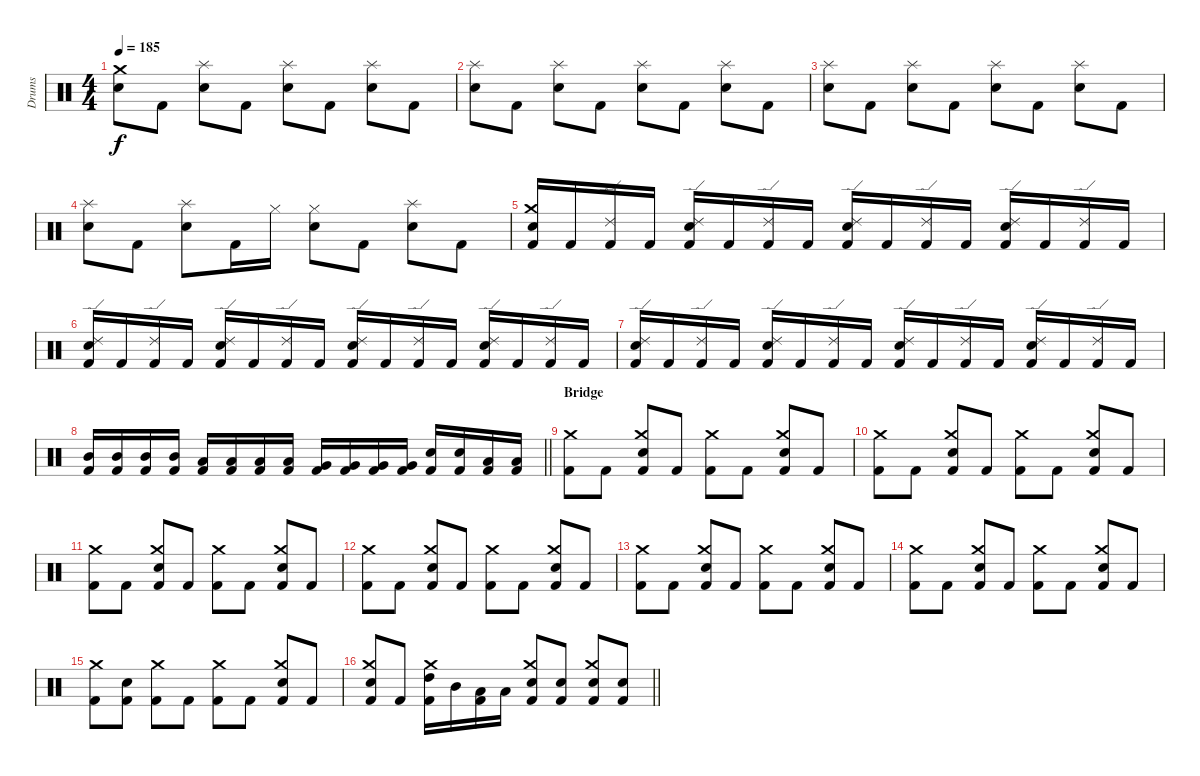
\track ("Drums" "Drums") {instrument percussion}
\staff {score}
\articulation defaults
\ts (4 4)
\section ("" "")
\tempo 185
\clef neutral
\ks c
("Snare (hit) 2" "Crash medium (hit)").8{dy f} "Kick (hit) 2".8 ("Snare (hit) 2" "Splash (hit)").8 "Kick (hit) 2".8 ("Snare (hit) 2" "Splash (hit)").8 "Kick (hit) 2".8 ("Snare (hit) 2" "Splash (hit)").8 "Kick (hit) 2".8 |
("Snare (hit) 2" "Splash (hit)").8 "Kick (hit) 2".8 ("Snare (hit) 2" "Splash (hit)").8 "Kick (hit) 2".8 ("Snare (hit) 2" "Splash (hit)").8 "Kick (hit) 2".8 ("Snare (hit) 2" "Splash (hit)").8 "Kick (hit) 2".8 |
("Snare (hit) 2" "Splash (hit)").8 "Kick (hit) 2".8 ("Snare (hit) 2" "Splash (hit)").8 "Kick (hit) 2".8 ("Snare (hit) 2" "Splash (hit)").8 "Kick (hit) 2".8 ("Snare (hit) 2" "Splash (hit)").8 "Kick (hit) 2".8 |
("Snare (hit) 2" "Splash (hit)").8 "Kick (hit) 2".8 ("Snare (hit) 2" "Splash (hit)").8 "Kick (hit) 2".16 "Hi-Hat (closed)".16 ("Snare (hit) 2" "Hi-Hat (closed)").8 "Kick (hit) 2".8 ("Snare (hit) 2" "Splash (hit)").8 "Kick (hit) 2".8 |
("Kick (hit) 2" "Snare (hit) 2" "Crash medium (hit)").16 "Kick (hit) 2".16 ("Kick (hit) 2" "Ride (edge) 2").16 "Kick (hit) 2".16 ("Kick (hit) 2" "Snare (hit) 2" "Ride (edge) 2").16 "Kick (hit) 2".16 ("Kick (hit) 2" "Ride (edge) 2").16 "Kick (hit) 2".16 ("Kick (hit) 2" "Snare (hit) 2" "Ride (edge) 2").16 "Kick (hit) 2".16 ("Kick (hit) 2" "Ride (edge) 2").16 "Kick (hit) 2".16 ("Kick (hit) 2" "Snare (hit) 2" "Ride (edge) 2").16 "Kick (hit) 2".16 ("Kick (hit) 2" "Ride (edge) 2").16 "Kick (hit) 2".16 |
("Kick (hit) 2" "Snare (hit) 2" "Ride (edge) 2").16 "Kick (hit) 2".16 ("Kick (hit) 2" "Ride (edge) 2").16 "Kick (hit) 2".16 ("Kick (hit) 2" "Snare (hit) 2" "Ride (edge) 2").16 "Kick (hit) 2".16 ("Kick (hit) 2" "Ride (edge) 2").16 "Kick (hit) 2".16 ("Kick (hit) 2" "Snare (hit) 2" "Ride (edge) 2").16 "Kick (hit) 2".16 ("Kick (hit) 2" "Ride (edge) 2").16 "Kick (hit) 2".16 ("Kick (hit) 2" "Snare (hit) 2" "Ride (edge) 2").16 "Kick (hit) 2".16 ("Kick (hit) 2" "Ride (edge) 2").16 "Kick (hit) 2".16 |
("Kick (hit) 2" "Snare (hit) 2" "Ride (edge) 2").16 "Kick (hit) 2".16 ("Kick (hit) 2" "Ride (edge) 2").16 "Kick (hit) 2".16 ("Kick (hit) 2" "Snare (hit) 2" "Ride (edge) 2").16 "Kick (hit) 2".16 ("Kick (hit) 2" "Ride (edge) 2").16 "Kick (hit) 2".16 ("Kick (hit) 2" "Snare (hit) 2" "Ride (edge) 2").16 "Kick (hit) 2".16 ("Kick (hit) 2" "Ride (edge) 2").16 "Kick (hit) 2".16 ("Kick (hit) 2" "Snare (hit) 2" "Ride (edge) 2").16 "Kick (hit) 2".16 ("Kick (hit) 2" "Ride (edge) 2").16 "Kick (hit) 2".16 |
\barLineRight lightlight
("Kick (hit) 2" "Mid Tom (hit)").16 ("Kick (hit) 2" "Mid Tom (hit)").16 ("Kick (hit) 2" "Mid Tom (hit)").16 ("Kick (hit) 2" "Mid Tom (hit)").16 ("Kick (hit) 2" "Low Tom (hit)").16 ("Kick (hit) 2" "Low Tom (hit)").16 ("Kick (hit) 2" "Low Tom (hit)").16 ("Kick (hit) 2" "Low Tom (hit)").16 ("Kick (hit) 2" "Very Low Tom (hit)").16 ("Kick (hit) 2" "Very Low Tom (hit)").16 ("Kick (hit) 2" "Very Low Tom (hit)").16 ("Kick (hit) 2" "Very Low Tom (hit)").16 ("Kick (hit) 2" "Snare (hit) 2").16 ("Kick (hit) 2" "Snare (hit) 2").16 ("Kick (hit) 2" "Low Tom (hit)").16 ("Kick (hit) 2" "Low Tom (hit)").16 |
\section ("" "Bridge")
("Kick (hit) 2" "Crash medium (hit)").8 "Kick (hit) 2".8 ("Kick (hit) 2" "Snare (hit) 2" "Crash medium (hit)").8 "Kick (hit) 2".8 ("Kick (hit) 2" "Crash medium (hit)").8 "Kick (hit) 2".8 ("Kick (hit) 2" "Snare (hit) 2" "Crash medium (hit)").8 "Kick (hit) 2".8 |
("Kick (hit) 2" "Crash medium (hit)").8 "Kick (hit) 2".8 ("Kick (hit) 2" "Snare (hit) 2" "Crash medium (hit)").8 "Kick (hit) 2".8 ("Kick (hit) 2" "Crash medium (hit)").8 "Kick (hit) 2".8 ("Kick (hit) 2" "Snare (hit) 2" "Crash medium (hit)").8 "Kick (hit) 2".8 |
("Kick (hit) 2" "Crash medium (hit)").8 "Kick (hit) 2".8 ("Kick (hit) 2" "Snare (hit) 2" "Crash medium (hit)").8 "Kick (hit) 2".8 ("Kick (hit) 2" "Crash medium (hit)").8 "Kick (hit) 2".8 ("Kick (hit) 2" "Snare (hit) 2" "Crash medium (hit)").8 "Kick (hit) 2".8 |
("Kick (hit) 2" "Crash medium (hit)").8 "Kick (hit) 2".8 ("Kick (hit) 2" "Snare (hit) 2" "Crash medium (hit)").8 "Kick (hit) 2".8 ("Kick (hit) 2" "Crash medium (hit)").8 "Kick (hit) 2".8 ("Kick (hit) 2" "Snare (hit) 2" "Crash medium (hit)").8 "Kick (hit) 2".8 |
("Kick (hit) 2" "Crash medium (hit)").8 "Kick (hit) 2".8 ("Kick (hit) 2" "Snare (hit) 2" "Crash medium (hit)").8 "Kick (hit) 2".8 ("Kick (hit) 2" "Crash medium (hit)").8 "Kick (hit) 2".8 ("Kick (hit) 2" "Snare (hit) 2" "Crash medium (hit)").8 "Kick (hit) 2".8 |
("Kick (hit) 2" "Crash medium (hit)").8 "Kick (hit) 2".8 ("Kick (hit) 2" "Snare (hit) 2" "Crash medium (hit)").8 "Kick (hit) 2".8 ("Kick (hit) 2" "Crash medium (hit)").8 "Kick (hit) 2".8 ("Kick (hit) 2" "Snare (hit) 2" "Crash medium (hit)").8 "Kick (hit) 2".8 |
("Kick (hit) 2" "Crash medium (hit)").8 ("Kick (hit) 2" "Snare (hit) 2").8 ("Kick (hit) 2" "Crash medium (hit)").8 "Kick (hit) 2".8 ("Kick (hit) 2" "Crash medium (hit)").8 "Kick (hit) 2".8 ("Kick (hit) 2" "Snare (hit) 2" "Crash medium (hit)").8 "Kick (hit) 2".8 |
\barLineRight lightlight
("Kick (hit) 2" "Snare (hit) 2" "Crash medium (hit)").8 "Kick (hit) 2".8 ("Kick (hit) 2" "High Tom (hit)" "Crash medium (hit)").16 "Mid Tom (hit)".16 ("Kick (hit) 2" "Low Tom (hit)").16 "Low Tom (hit)".16 ("Kick (hit) 2" "Snare (hit) 2" "Crash medium (hit)").8 ("Kick (hit) 2" "Snare (hit) 2").8 ("Kick (hit) 2" "Snare (hit) 2" "Crash medium (hit)").8 ("Kick (hit) 2" "Snare (hit) 2").8
